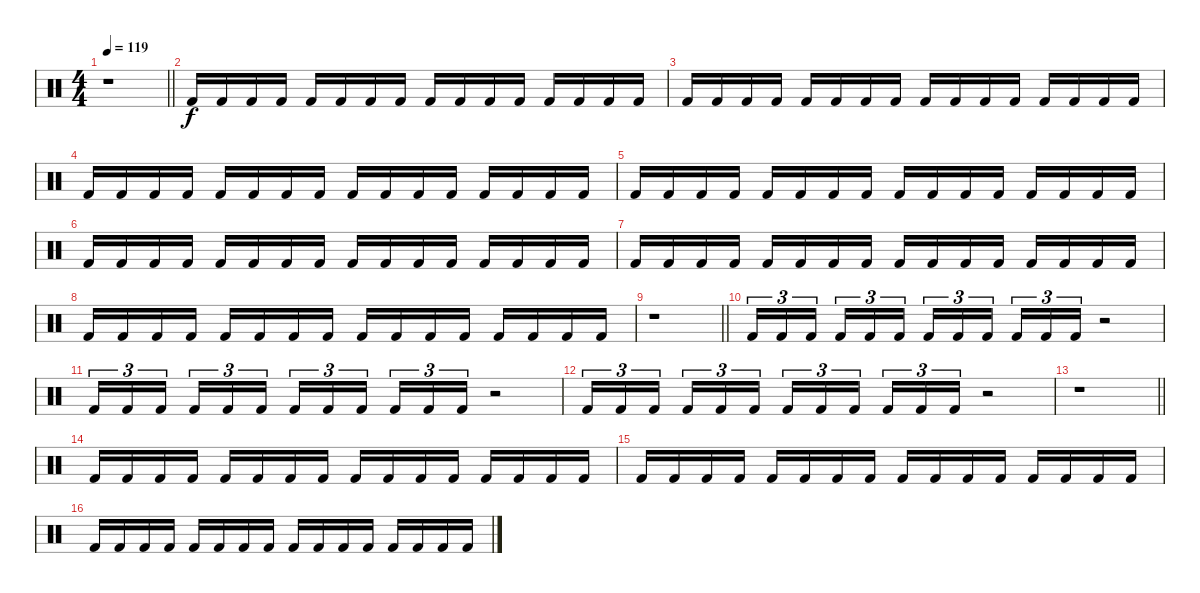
\track "" {instrument percussion}
\staff {score}
\articulation defaults
\ts (4 4)
\tempo 119
\clef neutral
\barLineRight lightlight
\ks c
r.1{dy f} |
"Kick (hit) 2".16 "Kick (hit) 2".16 "Kick (hit) 2".16 "Kick (hit) 2".16 "Kick (hit) 2".16 "Kick (hit) 2".16 "Kick (hit) 2".16 "Kick (hit) 2".16 "Kick (hit) 2".16 "Kick (hit) 2".16 "Kick (hit) 2".16 "Kick (hit) 2".16 "Kick (hit) 2".16 "Kick (hit) 2".16 "Kick (hit) 2".16 "Kick (hit) 2".16 |
"Kick (hit) 2".16 "Kick (hit) 2".16 "Kick (hit) 2".16 "Kick (hit) 2".16 "Kick (hit) 2".16 "Kick (hit) 2".16 "Kick (hit) 2".16 "Kick (hit) 2".16 "Kick (hit) 2".16 "Kick (hit) 2".16 "Kick (hit) 2".16 "Kick (hit) 2".16 "Kick (hit) 2".16 "Kick (hit) 2".16 "Kick (hit) 2".16 "Kick (hit) 2".16 |
"Kick (hit) 2".16 "Kick (hit) 2".16 "Kick (hit) 2".16 "Kick (hit) 2".16 "Kick (hit) 2".16 "Kick (hit) 2".16 "Kick (hit) 2".16 "Kick (hit) 2".16 "Kick (hit) 2".16 "Kick (hit) 2".16 "Kick (hit) 2".16 "Kick (hit) 2".16 "Kick (hit) 2".16 "Kick (hit) 2".16 "Kick (hit) 2".16 "Kick (hit) 2".16 |
"Kick (hit) 2".16 "Kick (hit) 2".16 "Kick (hit) 2".16 "Kick (hit) 2".16 "Kick (hit) 2".16 "Kick (hit) 2".16 "Kick (hit) 2".16 "Kick (hit) 2".16 "Kick (hit) 2".16 "Kick (hit) 2".16 "Kick (hit) 2".16 "Kick (hit) 2".16 "Kick (hit) 2".16 "Kick (hit) 2".16 "Kick (hit) 2".16 "Kick (hit) 2".16 |
"Kick (hit) 2".16 "Kick (hit) 2".16 "Kick (hit) 2".16 "Kick (hit) 2".16 "Kick (hit) 2".16 "Kick (hit) 2".16 "Kick (hit) 2".16 "Kick (hit) 2".16 "Kick (hit) 2".16 "Kick (hit) 2".16 "Kick (hit) 2".16 "Kick (hit) 2".16 "Kick (hit) 2".16 "Kick (hit) 2".16 "Kick (hit) 2".16 "Kick (hit) 2".16 |
"Kick (hit) 2".16 "Kick (hit) 2".16 "Kick (hit) 2".16 "Kick (hit) 2".16 "Kick (hit) 2".16 "Kick (hit) 2".16 "Kick (hit) 2".16 "Kick (hit) 2".16 "Kick (hit) 2".16 "Kick (hit) 2".16 "Kick (hit) 2".16 "Kick (hit) 2".16 "Kick (hit) 2".16 "Kick (hit) 2".16 "Kick (hit) 2".16 "Kick (hit) 2".16 |
"Kick (hit) 2".16 "Kick (hit) 2".16 "Kick (hit) 2".16 "Kick (hit) 2".16 "Kick (hit) 2".16 "Kick (hit) 2".16 "Kick (hit) 2".16 "Kick (hit) 2".16 "Kick (hit) 2".16 "Kick (hit) 2".16 "Kick (hit) 2".16 "Kick (hit) 2".16 "Kick (hit) 2".16 "Kick (hit) 2".16 "Kick (hit) 2".16 "Kick (hit) 2".16 |
\barLineRight lightlight
r.1 |
"Kick (hit) 2".16{tu (3 2)} "Kick (hit) 2".16{tu (3 2)} "Kick (hit) 2".16{tu (3 2) beam splitsecondary} "Kick (hit) 2".16{tu (3 2)} "Kick (hit) 2".16{tu (3 2)} "Kick (hit) 2".16{tu (3 2)} "Kick (hit) 2".16{tu (3 2)} "Kick (hit) 2".16{tu (3 2)} "Kick (hit) 2".16{tu (3 2) beam splitsecondary} "Kick (hit) 2".16{tu (3 2)} "Kick (hit) 2".16{tu (3 2)} "Kick (hit) 2".16{tu (3 2)} r.2 |
"Kick (hit) 2".16{tu (3 2)} "Kick (hit) 2".16{tu (3 2)} "Kick (hit) 2".16{tu (3 2) beam splitsecondary} "Kick (hit) 2".16{tu (3 2)} "Kick (hit) 2".16{tu (3 2)} "Kick (hit) 2".16{tu (3 2)} "Kick (hit) 2".16{tu (3 2)} "Kick (hit) 2".16{tu (3 2)} "Kick (hit) 2".16{tu (3 2) beam splitsecondary} "Kick (hit) 2".16{tu (3 2)} "Kick (hit) 2".16{tu (3 2)} "Kick (hit) 2".16{tu (3 2)} r.2 |
"Kick (hit) 2".16{tu (3 2)} "Kick (hit) 2".16{tu (3 2)} "Kick (hit) 2".16{tu (3 2) beam splitsecondary} "Kick (hit) 2".16{tu (3 2)} "Kick (hit) 2".16{tu (3 2)} "Kick (hit) 2".16{tu (3 2)} "Kick (hit) 2".16{tu (3 2)} "Kick (hit) 2".16{tu (3 2)} "Kick (hit) 2".16{tu (3 2) beam splitsecondary} "Kick (hit) 2".16{tu (3 2)} "Kick (hit) 2".16{tu (3 2)} "Kick (hit) 2".16{tu (3 2)} r.2 |
\barLineRight lightlight
r.1 |
"Kick (hit) 2".16 "Kick (hit) 2".16 "Kick (hit) 2".16 "Kick (hit) 2".16 "Kick (hit) 2".16 "Kick (hit) 2".16 "Kick (hit) 2".16 "Kick (hit) 2".16 "Kick (hit) 2".16 "Kick (hit) 2".16 "Kick (hit) 2".16 "Kick (hit) 2".16 "Kick (hit) 2".16 "Kick (hit) 2".16 "Kick (hit) 2".16 "Kick (hit) 2".16 |
"Kick (hit) 2".16 "Kick (hit) 2".16 "Kick (hit) 2".16 "Kick (hit) 2".16 "Kick (hit) 2".16 "Kick (hit) 2".16 "Kick (hit) 2".16 "Kick (hit) 2".16 "Kick (hit) 2".16 "Kick (hit) 2".16 "Kick (hit) 2".16 "Kick (hit) 2".16 "Kick (hit) 2".16 "Kick (hit) 2".16 "Kick (hit) 2".16 "Kick (hit) 2".16 |
"Kick (hit) 2".16 "Kick (hit) 2".16 "Kick (hit) 2".16 "Kick (hit) 2".16 "Kick (hit) 2".16 "Kick (hit) 2".16 "Kick (hit) 2".16 "Kick (hit) 2".16 "Kick (hit) 2".16 "Kick (hit) 2".16 "Kick (hit) 2".16 "Kick (hit) 2".16 "Kick (hit) 2".16 "Kick (hit) 2".16 "Kick (hit) 2".16 "Kick (hit) 2".16
